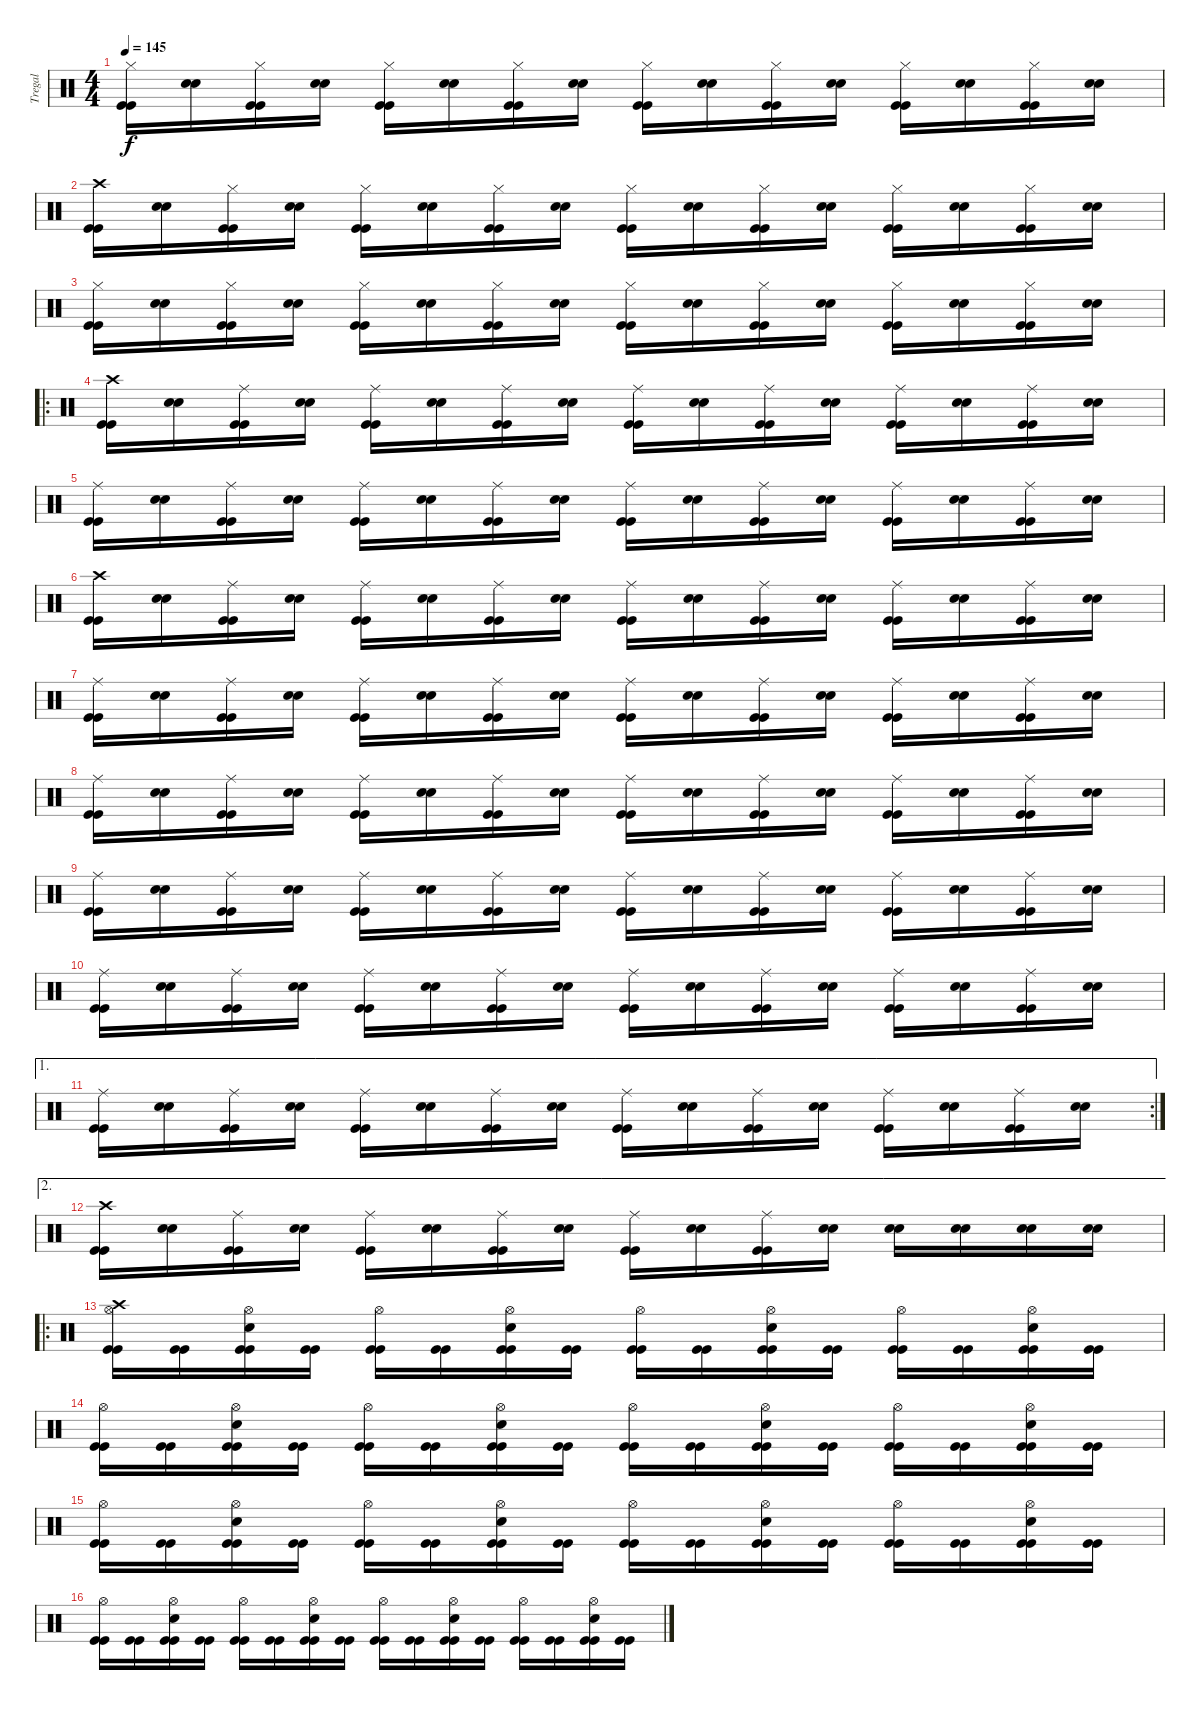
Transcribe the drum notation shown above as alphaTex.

\track ("Tregal" "Tregal") {instrument percussion}
\staff {score}
\articulation defaults
\ts (4 4)
\tempo 145
\clef neutral
\ks c
("Kick (hit)" "Kick (hit)" "Hi-Hat (closed)").16{dy f} ("Snare (hit) 2" "Snare (hit) 2").16 ("Kick (hit)" "Kick (hit)" "Hi-Hat (closed)").16 ("Snare (hit) 2" "Snare (hit) 2").16 ("Kick (hit)" "Kick (hit)" "Hi-Hat (closed)").16 ("Snare (hit) 2" "Snare (hit) 2").16 ("Kick (hit)" "Kick (hit)" "Hi-Hat (closed)").16 ("Snare (hit) 2" "Snare (hit) 2").16 ("Kick (hit)" "Kick (hit)" "Hi-Hat (closed)").16 ("Snare (hit) 2" "Snare (hit) 2").16 ("Kick (hit)" "Kick (hit)" "Hi-Hat (closed)").16 ("Snare (hit) 2" "Snare (hit) 2").16 ("Kick (hit)" "Kick (hit)" "Hi-Hat (closed)").16 ("Snare (hit) 2" "Snare (hit) 2").16 ("Kick (hit)" "Kick (hit)" "Hi-Hat (closed)").16 ("Snare (hit) 2" "Snare (hit) 2").16 |
("Kick (hit)" "Kick (hit)" "Crash high (hit)").16 ("Snare (hit) 2" "Snare (hit) 2").16 ("Kick (hit)" "Kick (hit)" "Hi-Hat (closed)").16 ("Snare (hit) 2" "Snare (hit) 2").16 ("Kick (hit)" "Kick (hit)" "Hi-Hat (closed)").16 ("Snare (hit) 2" "Snare (hit) 2").16 ("Kick (hit)" "Kick (hit)" "Hi-Hat (closed)").16 ("Snare (hit) 2" "Snare (hit) 2").16 ("Kick (hit)" "Kick (hit)" "Hi-Hat (closed)").16 ("Snare (hit) 2" "Snare (hit) 2").16 ("Kick (hit)" "Kick (hit)" "Hi-Hat (closed)").16 ("Snare (hit) 2" "Snare (hit) 2").16 ("Kick (hit)" "Kick (hit)" "Hi-Hat (closed)").16 ("Snare (hit) 2" "Snare (hit) 2").16 ("Kick (hit)" "Kick (hit)" "Hi-Hat (closed)").16 ("Snare (hit) 2" "Snare (hit) 2").16 |
("Kick (hit)" "Kick (hit)" "Hi-Hat (closed)").16 ("Snare (hit) 2" "Snare (hit) 2").16 ("Kick (hit)" "Kick (hit)" "Hi-Hat (closed)").16 ("Snare (hit) 2" "Snare (hit) 2").16 ("Kick (hit)" "Kick (hit)" "Hi-Hat (closed)").16 ("Snare (hit) 2" "Snare (hit) 2").16 ("Kick (hit)" "Kick (hit)" "Hi-Hat (closed)").16 ("Snare (hit) 2" "Snare (hit) 2").16 ("Kick (hit)" "Kick (hit)" "Hi-Hat (closed)").16 ("Snare (hit) 2" "Snare (hit) 2").16 ("Kick (hit)" "Kick (hit)" "Hi-Hat (closed)").16 ("Snare (hit) 2" "Snare (hit) 2").16 ("Kick (hit)" "Kick (hit)" "Hi-Hat (closed)").16 ("Snare (hit) 2" "Snare (hit) 2").16 ("Kick (hit)" "Kick (hit)" "Hi-Hat (closed)").16 ("Snare (hit) 2" "Snare (hit) 2").16 |
\ro
("Kick (hit)" "Kick (hit)" "Crash high (hit)").16 ("Snare (hit) 2" "Snare (hit) 2").16 ("Kick (hit)" "Kick (hit)" "Ride (middle)").16 ("Snare (hit) 2" "Snare (hit) 2").16 ("Kick (hit)" "Kick (hit)" "Ride (middle)").16 ("Snare (hit) 2" "Snare (hit) 2").16 ("Kick (hit)" "Kick (hit)" "Ride (middle)").16 ("Snare (hit) 2" "Snare (hit) 2").16 ("Kick (hit)" "Kick (hit)" "Ride (middle)").16 ("Snare (hit) 2" "Snare (hit) 2").16 ("Kick (hit)" "Kick (hit)" "Ride (middle)").16 ("Snare (hit) 2" "Snare (hit) 2").16 ("Kick (hit)" "Kick (hit)" "Ride (middle)").16 ("Snare (hit) 2" "Snare (hit) 2").16 ("Kick (hit)" "Kick (hit)" "Ride (middle)").16 ("Snare (hit) 2" "Snare (hit) 2").16 |
("Kick (hit)" "Kick (hit)" "Ride (middle)").16 ("Snare (hit) 2" "Snare (hit) 2").16 ("Kick (hit)" "Kick (hit)" "Ride (middle)").16 ("Snare (hit) 2" "Snare (hit) 2").16 ("Kick (hit)" "Kick (hit)" "Ride (middle)").16 ("Snare (hit) 2" "Snare (hit) 2").16 ("Kick (hit)" "Kick (hit)" "Ride (middle)").16 ("Snare (hit) 2" "Snare (hit) 2").16 ("Kick (hit)" "Kick (hit)" "Ride (middle)").16 ("Snare (hit) 2" "Snare (hit) 2").16 ("Kick (hit)" "Kick (hit)" "Ride (middle)").16 ("Snare (hit) 2" "Snare (hit) 2").16 ("Kick (hit)" "Kick (hit)" "Ride (middle)").16 ("Snare (hit) 2" "Snare (hit) 2").16 ("Kick (hit)" "Kick (hit)" "Ride (middle)").16 ("Snare (hit) 2" "Snare (hit) 2").16 |
("Kick (hit)" "Kick (hit)" "Crash high (hit)").16 ("Snare (hit) 2" "Snare (hit) 2").16 ("Kick (hit)" "Kick (hit)" "Ride (middle)").16 ("Snare (hit) 2" "Snare (hit) 2").16 ("Kick (hit)" "Kick (hit)" "Ride (middle)").16 ("Snare (hit) 2" "Snare (hit) 2").16 ("Kick (hit)" "Kick (hit)" "Ride (middle)").16 ("Snare (hit) 2" "Snare (hit) 2").16 ("Kick (hit)" "Kick (hit)" "Ride (middle)").16 ("Snare (hit) 2" "Snare (hit) 2").16 ("Kick (hit)" "Kick (hit)" "Ride (middle)").16 ("Snare (hit) 2" "Snare (hit) 2").16 ("Kick (hit)" "Kick (hit)" "Ride (middle)").16 ("Snare (hit) 2" "Snare (hit) 2").16 ("Kick (hit)" "Kick (hit)" "Ride (middle)").16 ("Snare (hit) 2" "Snare (hit) 2").16 |
("Kick (hit)" "Kick (hit)" "Ride (middle)").16 ("Snare (hit) 2" "Snare (hit) 2").16 ("Kick (hit)" "Kick (hit)" "Ride (middle)").16 ("Snare (hit) 2" "Snare (hit) 2").16 ("Kick (hit)" "Kick (hit)" "Ride (middle)").16 ("Snare (hit) 2" "Snare (hit) 2").16 ("Kick (hit)" "Kick (hit)" "Ride (middle)").16 ("Snare (hit) 2" "Snare (hit) 2").16 ("Kick (hit)" "Kick (hit)" "Ride (middle)").16 ("Snare (hit) 2" "Snare (hit) 2").16 ("Kick (hit)" "Kick (hit)" "Ride (middle)").16 ("Snare (hit) 2" "Snare (hit) 2").16 ("Kick (hit)" "Kick (hit)" "Ride (middle)").16 ("Snare (hit) 2" "Snare (hit) 2").16 ("Kick (hit)" "Kick (hit)" "Ride (middle)").16 ("Snare (hit) 2" "Snare (hit) 2").16 |
("Kick (hit)" "Kick (hit)" "Ride (middle)").16 ("Snare (hit) 2" "Snare (hit) 2").16 ("Kick (hit)" "Kick (hit)" "Ride (middle)").16 ("Snare (hit) 2" "Snare (hit) 2").16 ("Kick (hit)" "Kick (hit)" "Ride (middle)").16 ("Snare (hit) 2" "Snare (hit) 2").16 ("Kick (hit)" "Kick (hit)" "Ride (middle)").16 ("Snare (hit) 2" "Snare (hit) 2").16 ("Kick (hit)" "Kick (hit)" "Ride (middle)").16 ("Snare (hit) 2" "Snare (hit) 2").16 ("Kick (hit)" "Kick (hit)" "Ride (middle)").16 ("Snare (hit) 2" "Snare (hit) 2").16 ("Kick (hit)" "Kick (hit)" "Ride (middle)").16 ("Snare (hit) 2" "Snare (hit) 2").16 ("Kick (hit)" "Kick (hit)" "Ride (middle)").16 ("Snare (hit) 2" "Snare (hit) 2").16 |
("Kick (hit)" "Kick (hit)" "Ride (middle)").16 ("Snare (hit) 2" "Snare (hit) 2").16 ("Kick (hit)" "Kick (hit)" "Ride (middle)").16 ("Snare (hit) 2" "Snare (hit) 2").16 ("Kick (hit)" "Kick (hit)" "Ride (middle)").16 ("Snare (hit) 2" "Snare (hit) 2").16 ("Kick (hit)" "Kick (hit)" "Ride (middle)").16 ("Snare (hit) 2" "Snare (hit) 2").16 ("Kick (hit)" "Kick (hit)" "Ride (middle)").16 ("Snare (hit) 2" "Snare (hit) 2").16 ("Kick (hit)" "Kick (hit)" "Ride (middle)").16 ("Snare (hit) 2" "Snare (hit) 2").16 ("Kick (hit)" "Kick (hit)" "Ride (middle)").16 ("Snare (hit) 2" "Snare (hit) 2").16 ("Kick (hit)" "Kick (hit)" "Ride (middle)").16 ("Snare (hit) 2" "Snare (hit) 2").16 |
("Kick (hit)" "Kick (hit)" "Ride (middle)").16 ("Snare (hit) 2" "Snare (hit) 2").16 ("Kick (hit)" "Kick (hit)" "Ride (middle)").16 ("Snare (hit) 2" "Snare (hit) 2").16 ("Kick (hit)" "Kick (hit)" "Ride (middle)").16 ("Snare (hit) 2" "Snare (hit) 2").16 ("Kick (hit)" "Kick (hit)" "Ride (middle)").16 ("Snare (hit) 2" "Snare (hit) 2").16 ("Kick (hit)" "Kick (hit)" "Ride (middle)").16 ("Snare (hit) 2" "Snare (hit) 2").16 ("Kick (hit)" "Kick (hit)" "Ride (middle)").16 ("Snare (hit) 2" "Snare (hit) 2").16 ("Kick (hit)" "Kick (hit)" "Ride (middle)").16 ("Snare (hit) 2" "Snare (hit) 2").16 ("Kick (hit)" "Kick (hit)" "Ride (middle)").16 ("Snare (hit) 2" "Snare (hit) 2").16 |
\ae 1
\rc 2
("Kick (hit)" "Kick (hit)" "Ride (middle)").16 ("Snare (hit) 2" "Snare (hit) 2").16 ("Kick (hit)" "Kick (hit)" "Ride (middle)").16 ("Snare (hit) 2" "Snare (hit) 2").16 ("Kick (hit)" "Kick (hit)" "Ride (middle)").16 ("Snare (hit) 2" "Snare (hit) 2").16 ("Kick (hit)" "Kick (hit)" "Ride (middle)").16 ("Snare (hit) 2" "Snare (hit) 2").16 ("Kick (hit)" "Kick (hit)" "Ride (middle)").16 ("Snare (hit) 2" "Snare (hit) 2").16 ("Kick (hit)" "Kick (hit)" "Ride (middle)").16 ("Snare (hit) 2" "Snare (hit) 2").16 ("Kick (hit)" "Kick (hit)" "Ride (middle)").16 ("Snare (hit) 2" "Snare (hit) 2").16 ("Kick (hit)" "Kick (hit)" "Ride (middle)").16 ("Snare (hit) 2" "Snare (hit) 2").16 |
\ae 2
("Kick (hit)" "Kick (hit)" "Crash high (hit)").16 ("Snare (hit) 2" "Snare (hit) 2").16 ("Kick (hit)" "Kick (hit)" "Ride (middle)").16 ("Snare (hit) 2" "Snare (hit) 2").16 ("Kick (hit)" "Kick (hit)" "Ride (middle)").16 ("Snare (hit) 2" "Snare (hit) 2").16 ("Kick (hit)" "Kick (hit)" "Ride (middle)").16 ("Snare (hit) 2" "Snare (hit) 2").16 ("Kick (hit)" "Kick (hit)" "Ride (middle)").16 ("Snare (hit) 2" "Snare (hit) 2").16 ("Kick (hit)" "Kick (hit)" "Ride (middle)").16 ("Snare (hit) 2" "Snare (hit) 2").16 ("Snare (hit) 2" "Snare (hit) 2").16 ("Snare (hit) 2" "Snare (hit) 2").16 ("Snare (hit) 2" "Snare (hit) 2").16 ("Snare (hit) 2" "Snare (hit) 2").16 |
\ro
("Kick (hit)" "Kick (hit)" "Crash high (hit)" "Hi-Hat (open)").16 ("Kick (hit)" "Kick (hit)").16 ("Kick (hit)" "Kick (hit)" "Hi-Hat (open)" "Snare (hit) 2").16 ("Kick (hit)" "Kick (hit)").16 ("Kick (hit)" "Kick (hit)" "Hi-Hat (open)").16 ("Kick (hit)" "Kick (hit)").16 ("Kick (hit)" "Kick (hit)" "Hi-Hat (open)" "Snare (hit) 2").16 ("Kick (hit)" "Kick (hit)").16 ("Kick (hit)" "Kick (hit)" "Hi-Hat (open)").16 ("Kick (hit)" "Kick (hit)").16 ("Kick (hit)" "Kick (hit)" "Hi-Hat (open)" "Snare (hit) 2").16 ("Kick (hit)" "Kick (hit)").16 ("Kick (hit)" "Kick (hit)" "Hi-Hat (open)").16 ("Kick (hit)" "Kick (hit)").16 ("Kick (hit)" "Kick (hit)" "Hi-Hat (open)" "Snare (hit) 2").16 ("Kick (hit)" "Kick (hit)").16 |
("Kick (hit)" "Kick (hit)" "Hi-Hat (open)").16 ("Kick (hit)" "Kick (hit)").16 ("Kick (hit)" "Kick (hit)" "Hi-Hat (open)" "Snare (hit) 2").16 ("Kick (hit)" "Kick (hit)").16 ("Kick (hit)" "Kick (hit)" "Hi-Hat (open)").16 ("Kick (hit)" "Kick (hit)").16 ("Kick (hit)" "Kick (hit)" "Hi-Hat (open)" "Snare (hit) 2").16 ("Kick (hit)" "Kick (hit)").16 ("Kick (hit)" "Kick (hit)" "Hi-Hat (open)").16 ("Kick (hit)" "Kick (hit)").16 ("Kick (hit)" "Kick (hit)" "Hi-Hat (open)" "Snare (hit) 2").16 ("Kick (hit)" "Kick (hit)").16 ("Kick (hit)" "Kick (hit)" "Hi-Hat (open)").16 ("Kick (hit)" "Kick (hit)").16 ("Kick (hit)" "Kick (hit)" "Hi-Hat (open)" "Snare (hit) 2").16 ("Kick (hit)" "Kick (hit)").16 |
("Kick (hit)" "Kick (hit)" "Hi-Hat (open)").16 ("Kick (hit)" "Kick (hit)").16 ("Kick (hit)" "Kick (hit)" "Hi-Hat (open)" "Snare (hit) 2").16 ("Kick (hit)" "Kick (hit)").16 ("Kick (hit)" "Kick (hit)" "Hi-Hat (open)").16 ("Kick (hit)" "Kick (hit)").16 ("Kick (hit)" "Kick (hit)" "Hi-Hat (open)" "Snare (hit) 2").16 ("Kick (hit)" "Kick (hit)").16 ("Kick (hit)" "Kick (hit)" "Hi-Hat (open)").16 ("Kick (hit)" "Kick (hit)").16 ("Kick (hit)" "Kick (hit)" "Hi-Hat (open)" "Snare (hit) 2").16 ("Kick (hit)" "Kick (hit)").16 ("Kick (hit)" "Kick (hit)" "Hi-Hat (open)").16 ("Kick (hit)" "Kick (hit)").16 ("Kick (hit)" "Kick (hit)" "Hi-Hat (open)" "Snare (hit) 2").16 ("Kick (hit)" "Kick (hit)").16 |
("Kick (hit)" "Kick (hit)" "Hi-Hat (open)").16 ("Kick (hit)" "Kick (hit)").16 ("Kick (hit)" "Kick (hit)" "Hi-Hat (open)" "Snare (hit) 2").16 ("Kick (hit)" "Kick (hit)").16 ("Kick (hit)" "Kick (hit)" "Hi-Hat (open)").16 ("Kick (hit)" "Kick (hit)").16 ("Kick (hit)" "Kick (hit)" "Hi-Hat (open)" "Snare (hit) 2").16 ("Kick (hit)" "Kick (hit)").16 ("Kick (hit)" "Kick (hit)" "Hi-Hat (open)").16 ("Kick (hit)" "Kick (hit)").16 ("Kick (hit)" "Kick (hit)" "Hi-Hat (open)" "Snare (hit) 2").16 ("Kick (hit)" "Kick (hit)").16 ("Kick (hit)" "Kick (hit)" "Hi-Hat (open)").16 ("Kick (hit)" "Kick (hit)").16 ("Kick (hit)" "Kick (hit)" "Hi-Hat (open)" "Snare (hit) 2").16 ("Kick (hit)" "Kick (hit)").16
